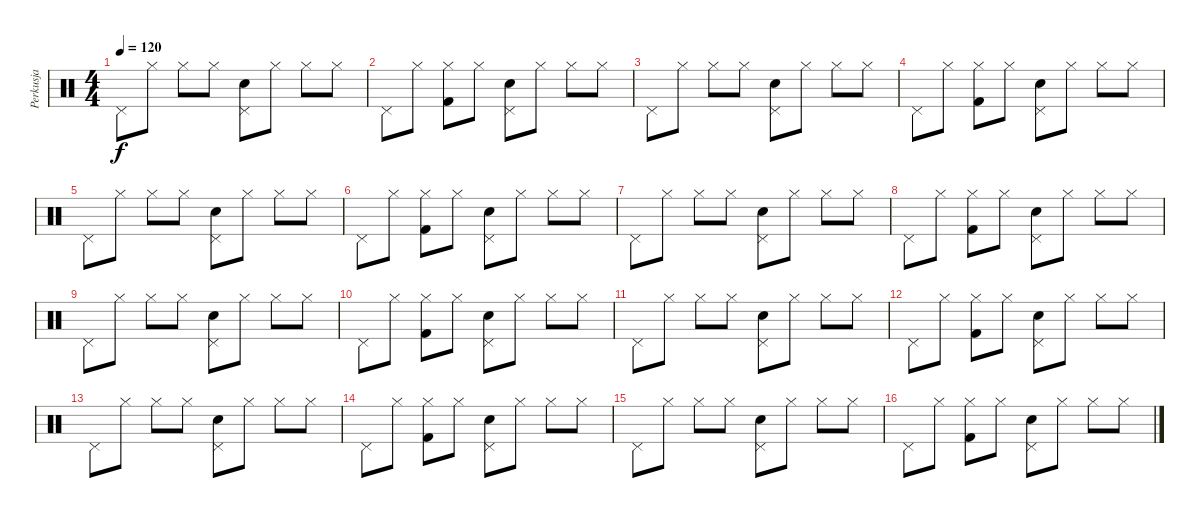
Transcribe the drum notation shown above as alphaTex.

\track ("Perkusja" "Perkusja") {instrument percussion}
\staff {score}
\articulation defaults
\ts (4 4)
\tempo 120
\clef neutral
\ks c "Pedal Hi-Hat (hit)".8{dy f} "Hi-Hat (closed)".8 "Hi-Hat (closed)".8 "Hi-Hat (closed)".8
("Pedal Hi-Hat (hit)" "Snare (hit) 2").8 "Hi-Hat (closed)".8 "Hi-Hat (closed)".8 "Hi-Hat (closed)".8 |
"Pedal Hi-Hat (hit)".8 "Hi-Hat (closed)".8 ("Hi-Hat (closed)" "Kick (hit) 2").8 "Hi-Hat (closed)".8 ("Pedal Hi-Hat (hit)" "Snare (hit) 2").8 "Hi-Hat (closed)".8 "Hi-Hat (closed)".8 "Hi-Hat (closed)".8 |
"Pedal Hi-Hat (hit)".8 "Hi-Hat (closed)".8 "Hi-Hat (closed)".8 "Hi-Hat (closed)".8 ("Pedal Hi-Hat (hit)" "Snare (hit) 2").8 "Hi-Hat (closed)".8 "Hi-Hat (closed)".8 "Hi-Hat (closed)".8 |
"Pedal Hi-Hat (hit)".8 "Hi-Hat (closed)".8 ("Hi-Hat (closed)" "Kick (hit) 2").8 "Hi-Hat (closed)".8 ("Pedal Hi-Hat (hit)" "Snare (hit) 2").8 "Hi-Hat (closed)".8 "Hi-Hat (closed)".8 "Hi-Hat (closed)".8 |
"Pedal Hi-Hat (hit)".8 "Hi-Hat (closed)".8 "Hi-Hat (closed)".8 "Hi-Hat (closed)".8 ("Pedal Hi-Hat (hit)" "Snare (hit) 2").8 "Hi-Hat (closed)".8 "Hi-Hat (closed)".8 "Hi-Hat (closed)".8 |
"Pedal Hi-Hat (hit)".8 "Hi-Hat (closed)".8 ("Hi-Hat (closed)" "Kick (hit) 2").8 "Hi-Hat (closed)".8 ("Pedal Hi-Hat (hit)" "Snare (hit) 2").8 "Hi-Hat (closed)".8 "Hi-Hat (closed)".8 "Hi-Hat (closed)".8 |
"Pedal Hi-Hat (hit)".8 "Hi-Hat (closed)".8 "Hi-Hat (closed)".8 "Hi-Hat (closed)".8 ("Pedal Hi-Hat (hit)" "Snare (hit) 2").8 "Hi-Hat (closed)".8 "Hi-Hat (closed)".8 "Hi-Hat (closed)".8 |
"Pedal Hi-Hat (hit)".8 "Hi-Hat (closed)".8 ("Hi-Hat (closed)" "Kick (hit) 2").8 "Hi-Hat (closed)".8 ("Pedal Hi-Hat (hit)" "Snare (hit) 2").8 "Hi-Hat (closed)".8 "Hi-Hat (closed)".8 "Hi-Hat (closed)".8 |
"Pedal Hi-Hat (hit)".8 "Hi-Hat (closed)".8 "Hi-Hat (closed)".8 "Hi-Hat (closed)".8 ("Pedal Hi-Hat (hit)" "Snare (hit) 2").8 "Hi-Hat (closed)".8 "Hi-Hat (closed)".8 "Hi-Hat (closed)".8 |
"Pedal Hi-Hat (hit)".8 "Hi-Hat (closed)".8 ("Hi-Hat (closed)" "Kick (hit) 2").8 "Hi-Hat (closed)".8 ("Pedal Hi-Hat (hit)" "Snare (hit) 2").8 "Hi-Hat (closed)".8 "Hi-Hat (closed)".8 "Hi-Hat (closed)".8 |
"Pedal Hi-Hat (hit)".8 "Hi-Hat (closed)".8 "Hi-Hat (closed)".8 "Hi-Hat (closed)".8 ("Pedal Hi-Hat (hit)" "Snare (hit) 2").8 "Hi-Hat (closed)".8 "Hi-Hat (closed)".8 "Hi-Hat (closed)".8 |
"Pedal Hi-Hat (hit)".8 "Hi-Hat (closed)".8 ("Hi-Hat (closed)" "Kick (hit) 2").8 "Hi-Hat (closed)".8 ("Pedal Hi-Hat (hit)" "Snare (hit) 2").8 "Hi-Hat (closed)".8 "Hi-Hat (closed)".8 "Hi-Hat (closed)".8 |
"Pedal Hi-Hat (hit)".8 "Hi-Hat (closed)".8 "Hi-Hat (closed)".8 "Hi-Hat (closed)".8 ("Pedal Hi-Hat (hit)" "Snare (hit) 2").8 "Hi-Hat (closed)".8 "Hi-Hat (closed)".8 "Hi-Hat (closed)".8 |
"Pedal Hi-Hat (hit)".8 "Hi-Hat (closed)".8 ("Hi-Hat (closed)" "Kick (hit) 2").8 "Hi-Hat (closed)".8 ("Pedal Hi-Hat (hit)" "Snare (hit) 2").8 "Hi-Hat (closed)".8 "Hi-Hat (closed)".8 "Hi-Hat (closed)".8 |
"Pedal Hi-Hat (hit)".8 "Hi-Hat (closed)".8 "Hi-Hat (closed)".8 "Hi-Hat (closed)".8 ("Pedal Hi-Hat (hit)" "Snare (hit) 2").8 "Hi-Hat (closed)".8 "Hi-Hat (closed)".8 "Hi-Hat (closed)".8 |
"Pedal Hi-Hat (hit)".8 "Hi-Hat (closed)".8 ("Hi-Hat (closed)" "Kick (hit) 2").8 "Hi-Hat (closed)".8 ("Pedal Hi-Hat (hit)" "Snare (hit) 2").8 "Hi-Hat (closed)".8 "Hi-Hat (closed)".8 "Hi-Hat (closed)".8
